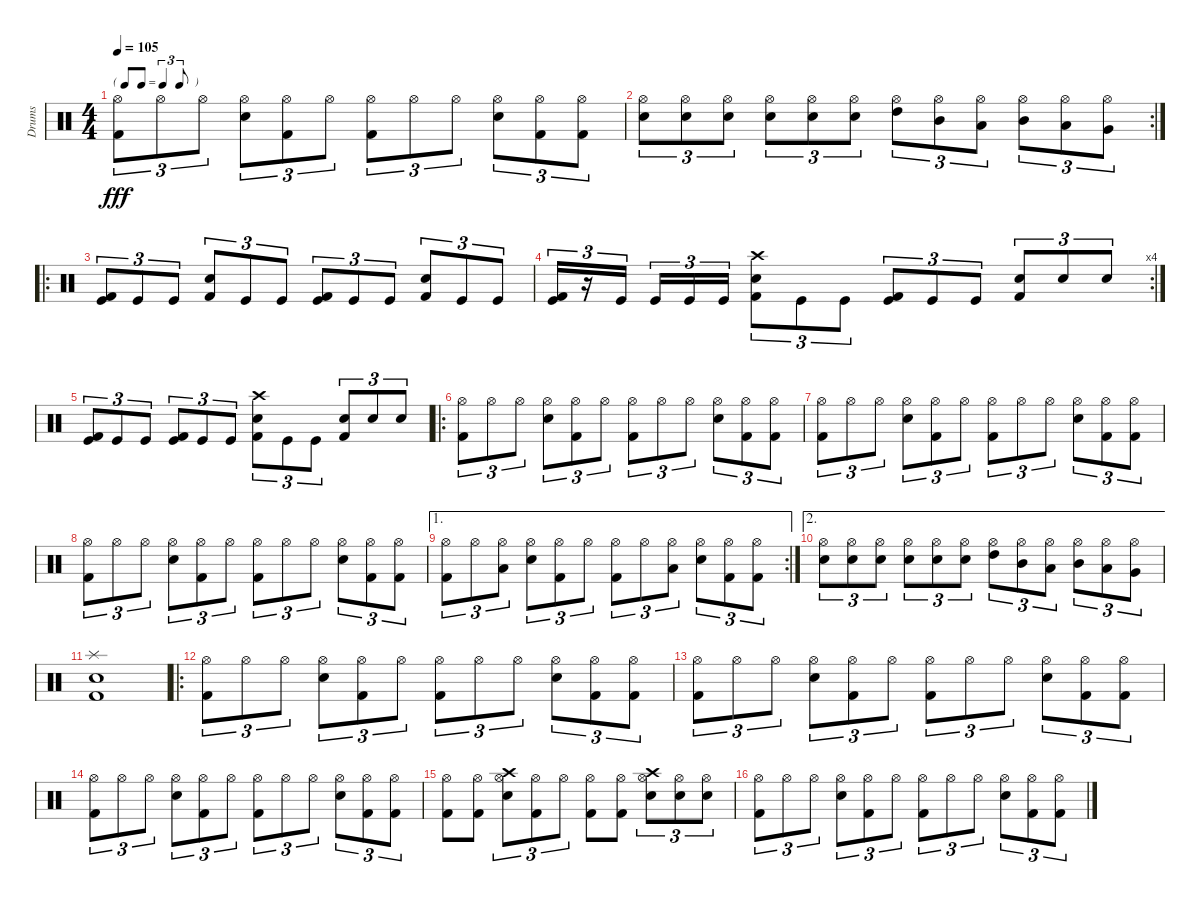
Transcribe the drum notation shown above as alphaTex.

\track ("Drums" "Drums") {instrument percussion}
\staff {score}
\articulation defaults
\ts (4 4)
\tf triplet8th
\tempo 105
\clef neutral
\ks c
("Hi-Hat (open)" "Kick (hit) 2").8{tu (3 2) dy fff} "Hi-Hat (open)".8{tu (3 2)} "Hi-Hat (open)".8{tu (3 2)} ("Hi-Hat (open)" "Snare (hit) 2").8{tu (3 2)} ("Hi-Hat (open)" "Kick (hit) 2").8{tu (3 2)} "Hi-Hat (open)".8{tu (3 2)} ("Hi-Hat (open)" "Kick (hit) 2").8{tu (3 2)} "Hi-Hat (open)".8{tu (3 2)} "Hi-Hat (open)".8{tu (3 2)} ("Hi-Hat (open)" "Snare (hit) 2").8{tu (3 2)} ("Hi-Hat (open)" "Kick (hit) 2").8{tu (3 2)} ("Hi-Hat (open)" "Kick (hit) 2").8{tu (3 2)} |
\rc 2
("Hi-Hat (open)" "Snare (hit) 2").8{tu (3 2)} ("Hi-Hat (open)" "Snare (hit) 2").8{tu (3 2)} ("Hi-Hat (open)" "Snare (hit) 2").8{tu (3 2)} ("Hi-Hat (open)" "Snare (hit) 2").8{tu (3 2)} ("Hi-Hat (open)" "Snare (hit) 2").8{tu (3 2)} ("Hi-Hat (open)" "Snare (hit) 2").8{tu (3 2)} ("Hi-Hat (open)" "High Tom (hit)").8{tu (3 2)} ("Hi-Hat (open)" "Mid Tom (hit)").8{tu (3 2)} ("Hi-Hat (open)" "Low Tom (hit)").8{tu (3 2)} ("Hi-Hat (open)" "Mid Tom (hit)").8{tu (3 2)} ("Hi-Hat (open)" "Low Tom (hit)").8{tu (3 2)} ("Hi-Hat (open)" "Very Low Tom (hit)").8{tu (3 2)} |
\ro
("Kick (hit)" "Kick (hit) 2").8{tu (3 2)} "Kick (hit)".8{tu (3 2)} "Kick (hit)".8{tu (3 2)} ("Snare (hit) 2" "Kick (hit) 2").8{tu (3 2)} "Kick (hit)".8{tu (3 2)} "Kick (hit)".8{tu (3 2)} ("Kick (hit)" "Kick (hit) 2").8{tu (3 2)} "Kick (hit)".8{tu (3 2)} "Kick (hit)".8{tu (3 2)} ("Snare (hit) 2" "Kick (hit) 2").8{tu (3 2)} "Kick (hit)".8{tu (3 2)} "Kick (hit)".8{tu (3 2)} |
\rc 4
("Kick (hit)" "Kick (hit) 2").16{tu (3 2)} r.16{tu (3 2)} "Kick (hit)".16{tu (3 2)} "Kick (hit)".16{tu (3 2)} "Kick (hit)".16{tu (3 2)} "Kick (hit)".16{tu (3 2)} ("Snare (hit) 2" "Kick (hit) 2" "Crash high (hit)").8{tu (3 2)} "Kick (hit)".8{tu (3 2)} "Kick (hit)".8{tu (3 2)} ("Kick (hit)" "Kick (hit) 2").8{tu (3 2)} "Kick (hit)".8{tu (3 2)} "Kick (hit)".8{tu (3 2)} ("Snare (hit) 2" "Kick (hit) 2").8{tu (3 2)} "Snare (hit) 2".8{tu (3 2)} "Snare (hit) 2".8{tu (3 2)} |
("Kick (hit)" "Kick (hit) 2").8{tu (3 2)} "Kick (hit)".8{tu (3 2)} "Kick (hit)".8{tu (3 2)} ("Kick (hit)" "Kick (hit) 2").8{tu (3 2)} "Kick (hit)".8{tu (3 2)} "Kick (hit)".8{tu (3 2)} ("Snare (hit) 2" "Kick (hit) 2" "Crash high (hit)").8{tu (3 2)} "Kick (hit)".8{tu (3 2)} "Kick (hit)".8{tu (3 2)} ("Snare (hit) 2" "Kick (hit) 2").8{tu (3 2)} "Snare (hit) 2".8{tu (3 2)} "Snare (hit) 2".8{tu (3 2)} |
\ro
("Hi-Hat (open)" "Kick (hit) 2").8{tu (3 2)} "Hi-Hat (open)".8{tu (3 2)} "Hi-Hat (open)".8{tu (3 2)} ("Hi-Hat (open)" "Snare (hit) 2").8{tu (3 2)} ("Hi-Hat (open)" "Kick (hit) 2").8{tu (3 2)} "Hi-Hat (open)".8{tu (3 2)} ("Hi-Hat (open)" "Kick (hit) 2").8{tu (3 2)} "Hi-Hat (open)".8{tu (3 2)} "Hi-Hat (open)".8{tu (3 2)} ("Hi-Hat (open)" "Snare (hit) 2").8{tu (3 2)} ("Hi-Hat (open)" "Kick (hit) 2").8{tu (3 2)} ("Hi-Hat (open)" "Kick (hit) 2").8{tu (3 2)} |
("Hi-Hat (open)" "Kick (hit) 2").8{tu (3 2)} "Hi-Hat (open)".8{tu (3 2)} "Hi-Hat (open)".8{tu (3 2)} ("Hi-Hat (open)" "Snare (hit) 2").8{tu (3 2)} ("Hi-Hat (open)" "Kick (hit) 2").8{tu (3 2)} "Hi-Hat (open)".8{tu (3 2)} ("Hi-Hat (open)" "Kick (hit) 2").8{tu (3 2)} "Hi-Hat (open)".8{tu (3 2)} "Hi-Hat (open)".8{tu (3 2)} ("Hi-Hat (open)" "Snare (hit) 2").8{tu (3 2)} ("Hi-Hat (open)" "Kick (hit) 2").8{tu (3 2)} ("Hi-Hat (open)" "Kick (hit) 2").8{tu (3 2)} |
("Hi-Hat (open)" "Kick (hit) 2").8{tu (3 2)} "Hi-Hat (open)".8{tu (3 2)} "Hi-Hat (open)".8{tu (3 2)} ("Hi-Hat (open)" "Snare (hit) 2").8{tu (3 2)} ("Hi-Hat (open)" "Kick (hit) 2").8{tu (3 2)} "Hi-Hat (open)".8{tu (3 2)} ("Hi-Hat (open)" "Kick (hit) 2").8{tu (3 2)} "Hi-Hat (open)".8{tu (3 2)} "Hi-Hat (open)".8{tu (3 2)} ("Hi-Hat (open)" "Snare (hit) 2").8{tu (3 2)} ("Hi-Hat (open)" "Kick (hit) 2").8{tu (3 2)} ("Hi-Hat (open)" "Kick (hit) 2").8{tu (3 2)} |
\ae 1
\rc 2
("Hi-Hat (open)" "Kick (hit) 2").8{tu (3 2)} "Hi-Hat (open)".8{tu (3 2)} ("Hi-Hat (open)" "Low Tom (hit)").8{tu (3 2)} ("Hi-Hat (open)" "Snare (hit) 2").8{tu (3 2)} ("Hi-Hat (open)" "Kick (hit) 2").8{tu (3 2)} "Hi-Hat (open)".8{tu (3 2)} ("Hi-Hat (open)" "Kick (hit) 2").8{tu (3 2)} "Hi-Hat (open)".8{tu (3 2)} ("Hi-Hat (open)" "Low Tom (hit)").8{tu (3 2)} ("Hi-Hat (open)" "Snare (hit) 2").8{tu (3 2)} ("Hi-Hat (open)" "Kick (hit) 2").8{tu (3 2)} ("Hi-Hat (open)" "Kick (hit) 2").8{tu (3 2)} |
\ae 2
("Hi-Hat (open)" "Snare (hit) 2").8{tu (3 2)} ("Hi-Hat (open)" "Snare (hit) 2").8{tu (3 2)} ("Hi-Hat (open)" "Snare (hit) 2").8{tu (3 2)} ("Hi-Hat (open)" "Snare (hit) 2").8{tu (3 2)} ("Hi-Hat (open)" "Snare (hit) 2").8{tu (3 2)} ("Hi-Hat (open)" "Snare (hit) 2").8{tu (3 2)} ("Hi-Hat (open)" "High Tom (hit)").8{tu (3 2)} ("Hi-Hat (open)" "Mid Tom (hit)").8{tu (3 2)} ("Hi-Hat (open)" "Low Tom (hit)").8{tu (3 2)} ("Hi-Hat (open)" "Mid Tom (hit)").8{tu (3 2)} ("Hi-Hat (open)" "Low Tom (hit)").8{tu (3 2)} ("Hi-Hat (open)" "Very Low Tom (hit)").8{tu (3 2)} |
("Kick (hit) 2" "Splash (hit)" "Snare (hit) 2").1 |
\ro
("Hi-Hat (open)" "Kick (hit) 2").8{tu (3 2)} "Hi-Hat (open)".8{tu (3 2)} "Hi-Hat (open)".8{tu (3 2)} ("Hi-Hat (open)" "Snare (hit) 2").8{tu (3 2)} ("Hi-Hat (open)" "Kick (hit) 2").8{tu (3 2)} "Hi-Hat (open)".8{tu (3 2)} ("Hi-Hat (open)" "Kick (hit) 2").8{tu (3 2)} "Hi-Hat (open)".8{tu (3 2)} "Hi-Hat (open)".8{tu (3 2)} ("Hi-Hat (open)" "Snare (hit) 2").8{tu (3 2)} ("Hi-Hat (open)" "Kick (hit) 2").8{tu (3 2)} ("Hi-Hat (open)" "Kick (hit) 2").8{tu (3 2)} |
("Hi-Hat (open)" "Kick (hit) 2").8{tu (3 2)} "Hi-Hat (open)".8{tu (3 2)} "Hi-Hat (open)".8{tu (3 2)} ("Hi-Hat (open)" "Snare (hit) 2").8{tu (3 2)} ("Hi-Hat (open)" "Kick (hit) 2").8{tu (3 2)} "Hi-Hat (open)".8{tu (3 2)} ("Hi-Hat (open)" "Kick (hit) 2").8{tu (3 2)} "Hi-Hat (open)".8{tu (3 2)} "Hi-Hat (open)".8{tu (3 2)} ("Hi-Hat (open)" "Snare (hit) 2").8{tu (3 2)} ("Hi-Hat (open)" "Kick (hit) 2").8{tu (3 2)} ("Hi-Hat (open)" "Kick (hit) 2").8{tu (3 2)} |
("Hi-Hat (open)" "Kick (hit) 2").8{tu (3 2)} "Hi-Hat (open)".8{tu (3 2)} "Hi-Hat (open)".8{tu (3 2)} ("Hi-Hat (open)" "Snare (hit) 2").8{tu (3 2)} ("Hi-Hat (open)" "Kick (hit) 2").8{tu (3 2)} "Hi-Hat (open)".8{tu (3 2)} ("Hi-Hat (open)" "Kick (hit) 2").8{tu (3 2)} "Hi-Hat (open)".8{tu (3 2)} "Hi-Hat (open)".8{tu (3 2)} ("Hi-Hat (open)" "Snare (hit) 2").8{tu (3 2)} ("Hi-Hat (open)" "Kick (hit) 2").8{tu (3 2)} ("Hi-Hat (open)" "Kick (hit) 2").8{tu (3 2)} |
("Hi-Hat (open)" "Kick (hit) 2").8 ("Hi-Hat (open)" "Kick (hit) 2").8 ("Hi-Hat (open)" "Snare (hit) 2" "Crash high (hit)").8{tu (3 2)} ("Hi-Hat (open)" "Kick (hit) 2").8{tu (3 2)} "Hi-Hat (open)".8{tu (3 2)} ("Hi-Hat (open)" "Kick (hit) 2").8 ("Hi-Hat (open)" "Kick (hit) 2").8 ("Hi-Hat (open)" "Snare (hit) 2" "Crash high (hit)").8{tu (3 2)} ("Hi-Hat (open)" "Snare (hit) 2").8{tu (3 2)} ("Hi-Hat (open)" "Snare (hit) 2").8{tu (3 2)} |
("Hi-Hat (open)" "Kick (hit) 2").8{tu (3 2)} "Hi-Hat (open)".8{tu (3 2)} "Hi-Hat (open)".8{tu (3 2)} ("Hi-Hat (open)" "Snare (hit) 2").8{tu (3 2)} ("Hi-Hat (open)" "Kick (hit) 2").8{tu (3 2)} "Hi-Hat (open)".8{tu (3 2)} ("Hi-Hat (open)" "Kick (hit) 2").8{tu (3 2)} "Hi-Hat (open)".8{tu (3 2)} "Hi-Hat (open)".8{tu (3 2)} ("Hi-Hat (open)" "Snare (hit) 2").8{tu (3 2)} ("Hi-Hat (open)" "Kick (hit) 2").8{tu (3 2)} ("Hi-Hat (open)" "Kick (hit) 2").8{tu (3 2)}
